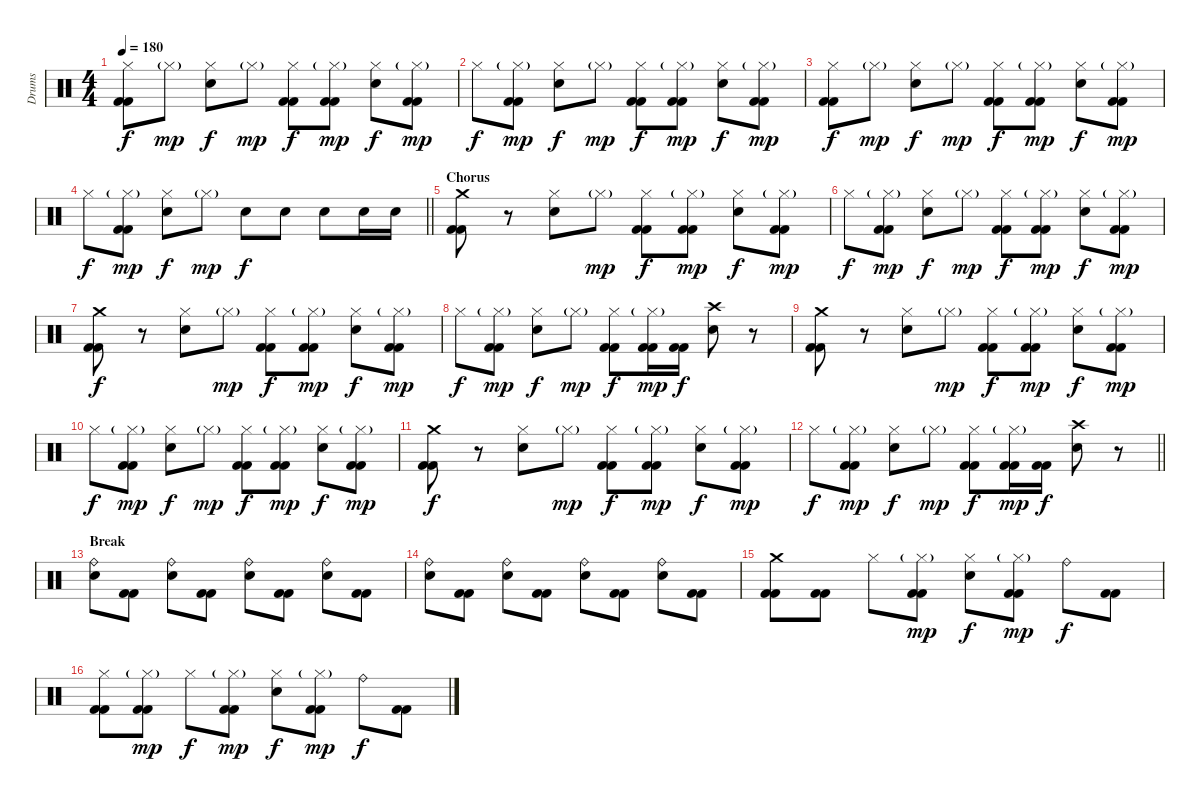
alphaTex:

\track ("Drums" "Drums") {instrument percussion}
\staff {score}
\articulation defaults
\ts (4 4)
\tempo 180
\clef neutral
\ks c
("Hi-Hat (closed)" "Kick (hit) 2" "Kick (hit) 2").8{dy f} "Hi-Hat (closed)"{g}.8{dy mp} ("Hi-Hat (closed)" "Snare (hit) 2").8{dy f} "Hi-Hat (closed)"{g}.8{dy mp} ("Hi-Hat (closed)" "Kick (hit) 2" "Kick (hit) 2").8{dy f} ("Hi-Hat (closed)"{g} "Kick (hit) 2" "Kick (hit) 2").8{dy mp} ("Hi-Hat (closed)" "Snare (hit) 2").8{dy f} ("Hi-Hat (closed)"{g} "Kick (hit) 2" "Kick (hit) 2").8{dy mp} |
"Hi-Hat (closed)".8{dy f} ("Hi-Hat (closed)"{g} "Kick (hit) 2" "Kick (hit) 2").8{dy mp} ("Hi-Hat (closed)" "Snare (hit) 2").8{dy f} "Hi-Hat (closed)"{g}.8{dy mp} ("Hi-Hat (closed)" "Kick (hit) 2" "Kick (hit) 2").8{dy f} ("Hi-Hat (closed)"{g} "Kick (hit) 2" "Kick (hit) 2").8{dy mp} ("Hi-Hat (closed)" "Snare (hit) 2").8{dy f} ("Hi-Hat (closed)"{g} "Kick (hit) 2" "Kick (hit) 2").8{dy mp} |
("Hi-Hat (closed)" "Kick (hit) 2" "Kick (hit) 2").8{dy f} "Hi-Hat (closed)"{g}.8{dy mp} ("Hi-Hat (closed)" "Snare (hit) 2").8{dy f} "Hi-Hat (closed)"{g}.8{dy mp} ("Hi-Hat (closed)" "Kick (hit) 2" "Kick (hit) 2").8{dy f} ("Hi-Hat (closed)"{g} "Kick (hit) 2" "Kick (hit) 2").8{dy mp} ("Hi-Hat (closed)" "Snare (hit) 2").8{dy f} ("Hi-Hat (closed)"{g} "Kick (hit) 2" "Kick (hit) 2").8{dy mp} |
\barLineRight lightlight "Hi-Hat (closed)".8{dy f}
("Hi-Hat (closed)"{g} "Kick (hit) 2" "Kick (hit) 2").8{dy mp} ("Hi-Hat (closed)" "Snare (hit) 2").8{dy f} "Hi-Hat (closed)"{g}.8{dy mp} "Snare (hit) 2".8{dy f} "Snare (hit) 2".8 "Snare (hit) 2".8 "Snare (hit) 2".16 "Snare (hit) 2".16 |
\section ("" "Chorus")
("Crash medium (hit)" "Kick (hit) 2" "Kick (hit) 2").8 r.8 ("Hi-Hat (closed)" "Snare (hit) 2").8 "Hi-Hat (closed)"{g}.8{dy mp} ("Hi-Hat (closed)" "Kick (hit) 2" "Kick (hit) 2").8{dy f} ("Hi-Hat (closed)"{g} "Kick (hit) 2" "Kick (hit) 2").8{dy mp} ("Hi-Hat (closed)" "Snare (hit) 2").8{dy f} ("Hi-Hat (closed)"{g} "Kick (hit) 2" "Kick (hit) 2").8{dy mp} |
"Hi-Hat (closed)".8{dy f} ("Hi-Hat (closed)"{g} "Kick (hit) 2" "Kick (hit) 2").8{dy mp} ("Hi-Hat (closed)" "Snare (hit) 2").8{dy f} "Hi-Hat (closed)"{g}.8{dy mp} ("Hi-Hat (closed)" "Kick (hit) 2" "Kick (hit) 2").8{dy f} ("Hi-Hat (closed)"{g} "Kick (hit) 2" "Kick (hit) 2").8{dy mp} ("Hi-Hat (closed)" "Snare (hit) 2").8{dy f} ("Hi-Hat (closed)"{g} "Kick (hit) 2" "Kick (hit) 2").8{dy mp} |
("Crash medium (hit)" "Kick (hit) 2" "Kick (hit) 2").8{dy f} r.8 ("Hi-Hat (closed)" "Snare (hit) 2").8 "Hi-Hat (closed)"{g}.8{dy mp} ("Hi-Hat (closed)" "Kick (hit) 2" "Kick (hit) 2").8{dy f} ("Hi-Hat (closed)"{g} "Kick (hit) 2" "Kick (hit) 2").8{dy mp} ("Hi-Hat (closed)" "Snare (hit) 2").8{dy f} ("Hi-Hat (closed)"{g} "Kick (hit) 2" "Kick (hit) 2").8{dy mp} |
"Hi-Hat (closed)".8{dy f} ("Hi-Hat (closed)"{g} "Kick (hit) 2" "Kick (hit) 2").8{dy mp} ("Hi-Hat (closed)" "Snare (hit) 2").8{dy f} "Hi-Hat (closed)"{g}.8{dy mp} ("Hi-Hat (closed)" "Kick (hit) 2" "Kick (hit) 2").8{dy f} ("Hi-Hat (closed)"{g} "Kick (hit) 2" "Kick (hit) 2").16{dy mp} ("Kick (hit) 2" "Kick (hit) 2").16{dy f} ("Crash high (hit)" "Snare (hit) 2").8 r.8 |
("Crash medium (hit)" "Kick (hit) 2" "Kick (hit) 2").8 r.8 ("Hi-Hat (closed)" "Snare (hit) 2").8 "Hi-Hat (closed)"{g}.8{dy mp} ("Hi-Hat (closed)" "Kick (hit) 2" "Kick (hit) 2").8{dy f} ("Hi-Hat (closed)"{g} "Kick (hit) 2" "Kick (hit) 2").8{dy mp} ("Hi-Hat (closed)" "Snare (hit) 2").8{dy f} ("Hi-Hat (closed)"{g} "Kick (hit) 2" "Kick (hit) 2").8{dy mp} |
"Hi-Hat (closed)".8{dy f} ("Hi-Hat (closed)"{g} "Kick (hit) 2" "Kick (hit) 2").8{dy mp} ("Hi-Hat (closed)" "Snare (hit) 2").8{dy f} "Hi-Hat (closed)"{g}.8{dy mp} ("Hi-Hat (closed)" "Kick (hit) 2" "Kick (hit) 2").8{dy f} ("Hi-Hat (closed)"{g} "Kick (hit) 2" "Kick (hit) 2").8{dy mp} ("Hi-Hat (closed)" "Snare (hit) 2").8{dy f} ("Hi-Hat (closed)"{g} "Kick (hit) 2" "Kick (hit) 2").8{dy mp} |
("Crash medium (hit)" "Kick (hit) 2" "Kick (hit) 2").8{dy f} r.8 ("Hi-Hat (closed)" "Snare (hit) 2").8 "Hi-Hat (closed)"{g}.8{dy mp} ("Hi-Hat (closed)" "Kick (hit) 2" "Kick (hit) 2").8{dy f} ("Hi-Hat (closed)"{g} "Kick (hit) 2" "Kick (hit) 2").8{dy mp} ("Hi-Hat (closed)" "Snare (hit) 2").8{dy f} ("Hi-Hat (closed)"{g} "Kick (hit) 2" "Kick (hit) 2").8{dy mp} |
\barLineRight lightlight "Hi-Hat (closed)".8{dy f}
("Hi-Hat (closed)"{g} "Kick (hit) 2" "Kick (hit) 2").8{dy mp} ("Hi-Hat (closed)" "Snare (hit) 2").8{dy f} "Hi-Hat (closed)"{g}.8{dy mp} ("Hi-Hat (closed)" "Kick (hit) 2" "Kick (hit) 2").8{dy f} ("Hi-Hat (closed)"{g} "Kick (hit) 2" "Kick (hit) 2").16{dy mp} ("Kick (hit) 2" "Kick (hit) 2").16{dy f} ("Crash high (hit)" "Snare (hit) 2").8 r.8 |
\section ("" "Break")
("Ride (bell)" "Snare (hit) 2").8 ("Kick (hit) 2" "Kick (hit) 2").8 ("Ride (bell)" "Snare (hit) 2").8 ("Kick (hit) 2" "Kick (hit) 2").8 ("Ride (bell)" "Snare (hit) 2").8 ("Kick (hit) 2" "Kick (hit) 2").8 ("Ride (bell)" "Snare (hit) 2").8 ("Kick (hit) 2" "Kick (hit) 2").8 |
("Ride (bell)" "Snare (hit) 2").8 ("Kick (hit) 2" "Kick (hit) 2").8 ("Ride (bell)" "Snare (hit) 2").8 ("Kick (hit) 2" "Kick (hit) 2").8 ("Ride (bell)" "Snare (hit) 2").8 ("Kick (hit) 2" "Kick (hit) 2").8 ("Ride (bell)" "Snare (hit) 2").8 ("Kick (hit) 2" "Kick (hit) 2").8 |
("Crash medium (hit)" "Kick (hit) 2" "Kick (hit) 2").8 ("Kick (hit) 2" "Kick (hit) 2").8 "Hi-Hat (closed)".8 ("Hi-Hat (closed)"{g} "Kick (hit) 2" "Kick (hit) 2").8{dy mp} ("Hi-Hat (closed)" "Snare (hit) 2").8{dy f} ("Hi-Hat (closed)"{g} "Kick (hit) 2" "Kick (hit) 2").8{dy mp} "Ride (bell)".8{dy f} ("Kick (hit) 2" "Kick (hit) 2").8 |
("Hi-Hat (closed)" "Kick (hit) 2" "Kick (hit) 2").8 ("Hi-Hat (closed)"{g} "Kick (hit) 2" "Kick (hit) 2").8{dy mp} "Hi-Hat (closed)".8{dy f} ("Hi-Hat (closed)"{g} "Kick (hit) 2" "Kick (hit) 2").8{dy mp} ("Hi-Hat (closed)" "Snare (hit) 2").8{dy f} ("Hi-Hat (closed)"{g} "Kick (hit) 2" "Kick (hit) 2").8{dy mp} "Ride (bell)".8{dy f} ("Kick (hit) 2" "Kick (hit) 2").8
